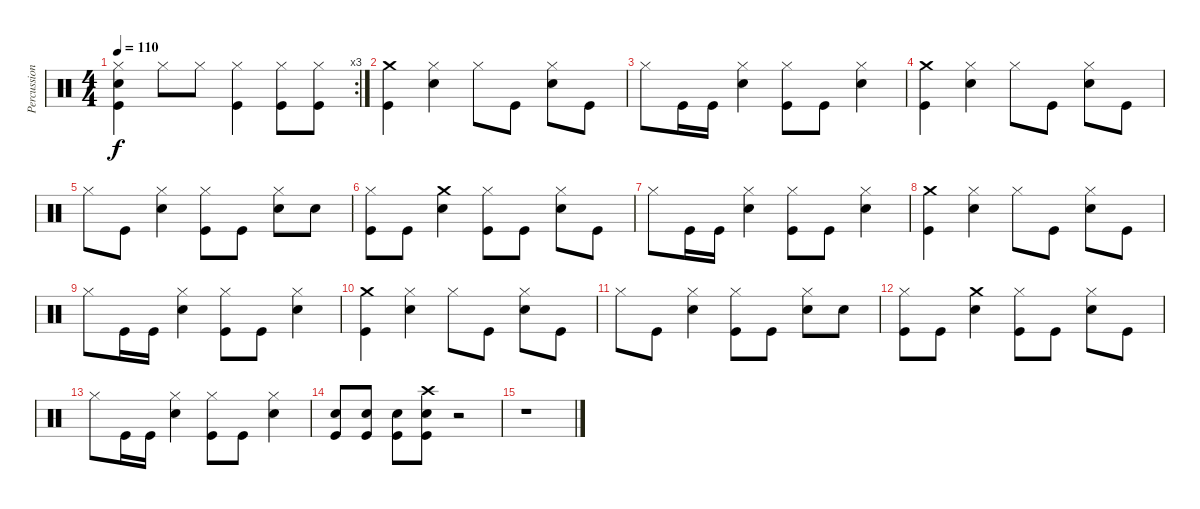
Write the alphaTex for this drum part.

\track ("Percussion" "Percussion") {instrument percussion}
\staff {score}
\articulation defaults
\rc 3
\ts (4 4)
\tempo 110
\clef neutral
\ks c
("Hi-Hat (closed)" "Snare (hit) 2" "Kick (hit)").4{dy f} "Hi-Hat (closed)".8 "Hi-Hat (closed)".8 ("Hi-Hat (closed)" "Kick (hit)").4 ("Hi-Hat (closed)" "Kick (hit)").8 ("Hi-Hat (closed)" "Kick (hit)").8 |
("Kick (hit)" "Crash medium (hit)").4 ("Hi-Hat (closed)" "Snare (hit) 2").4 "Hi-Hat (closed)".8 "Kick (hit)".8 ("Snare (hit) 2" "Hi-Hat (closed)").8 "Kick (hit)".8 |
"Hi-Hat (closed)".8 "Kick (hit)".16 "Kick (hit)".16 ("Snare (hit) 2" "Hi-Hat (closed)").4 ("Kick (hit)" "Hi-Hat (closed)").8 "Kick (hit)".8 ("Snare (hit) 2" "Hi-Hat (closed)").4 |
("Kick (hit)" "Crash medium (hit)").4 ("Snare (hit) 2" "Hi-Hat (closed)").4 "Hi-Hat (closed)".8 "Kick (hit)".8 ("Snare (hit) 2" "Hi-Hat (closed)").8 "Kick (hit)".8 |
"Hi-Hat (closed)".8 "Kick (hit)".8 ("Snare (hit) 2" "Hi-Hat (closed)").4 ("Kick (hit)" "Hi-Hat (closed)").8 "Kick (hit)".8 ("Snare (hit) 2" "Hi-Hat (closed)").8 "Snare (hit) 2".8 |
("Hi-Hat (closed)" "Kick (hit)").8 "Kick (hit)".8 ("Crash medium (hit)" "Snare (hit) 2").4 ("Hi-Hat (closed)" "Kick (hit)").8 "Kick (hit)".8 ("Snare (hit) 2" "Hi-Hat (closed)").8 "Kick (hit)".8 |
"Hi-Hat (closed)".8 "Kick (hit)".16 "Kick (hit)".16 ("Snare (hit) 2" "Hi-Hat (closed)").4 ("Kick (hit)" "Hi-Hat (closed)").8 "Kick (hit)".8 ("Snare (hit) 2" "Hi-Hat (closed)").4 |
("Kick (hit)" "Crash medium (hit)").4 ("Hi-Hat (closed)" "Snare (hit) 2").4 "Hi-Hat (closed)".8 "Kick (hit)".8 ("Snare (hit) 2" "Hi-Hat (closed)").8 "Kick (hit)".8 |
"Hi-Hat (closed)".8 "Kick (hit)".16 "Kick (hit)".16 ("Snare (hit) 2" "Hi-Hat (closed)").4 ("Kick (hit)" "Hi-Hat (closed)").8 "Kick (hit)".8 ("Snare (hit) 2" "Hi-Hat (closed)").4 |
("Kick (hit)" "Crash medium (hit)").4 ("Snare (hit) 2" "Hi-Hat (closed)").4 "Hi-Hat (closed)".8 "Kick (hit)".8 ("Snare (hit) 2" "Hi-Hat (closed)").8 "Kick (hit)".8 |
"Hi-Hat (closed)".8 "Kick (hit)".8 ("Snare (hit) 2" "Hi-Hat (closed)").4 ("Kick (hit)" "Hi-Hat (closed)").8 "Kick (hit)".8 ("Snare (hit) 2" "Hi-Hat (closed)").8 "Snare (hit) 2".8 |
("Hi-Hat (closed)" "Kick (hit)").8 "Kick (hit)".8 ("Crash medium (hit)" "Snare (hit) 2").4 ("Hi-Hat (closed)" "Kick (hit)").8 "Kick (hit)".8 ("Snare (hit) 2" "Hi-Hat (closed)").8 "Kick (hit)".8 |
"Hi-Hat (closed)".8 "Kick (hit)".16 "Kick (hit)".16 ("Snare (hit) 2" "Hi-Hat (closed)").4 ("Kick (hit)" "Hi-Hat (closed)").8 "Kick (hit)".8 ("Snare (hit) 2" "Hi-Hat (closed)").4 |
("Snare (hit) 2" "Kick (hit)").8 ("Snare (hit) 2" "Kick (hit)").8 ("Snare (hit) 2" "Kick (hit)").8 ("Crash high (hit)" "Snare (hit) 2" "Kick (hit)").8 r.2 |
r.1
